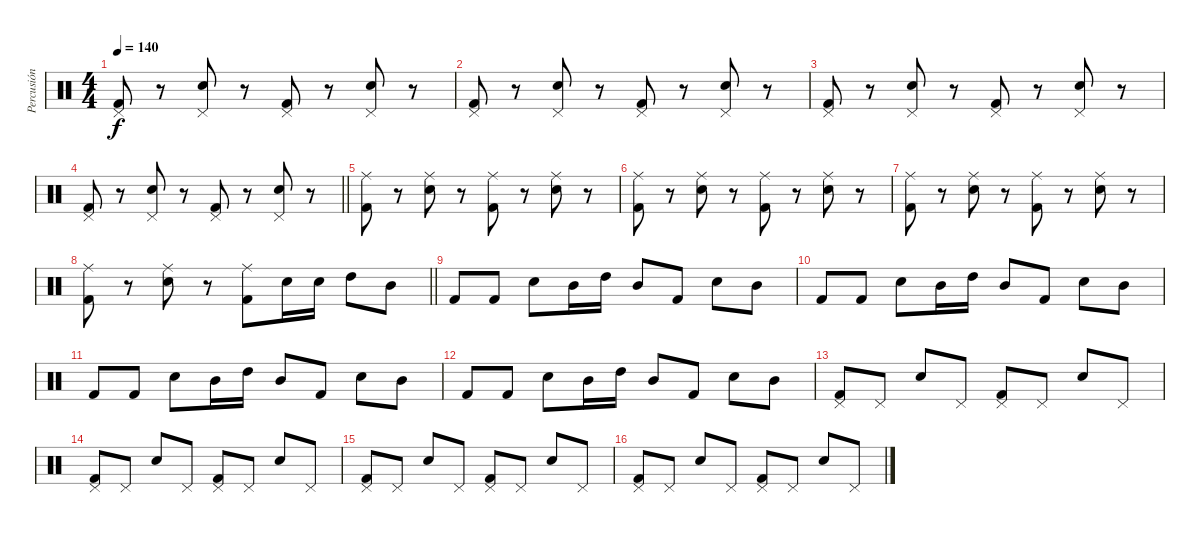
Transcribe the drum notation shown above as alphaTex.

\track ("Percusión" "Percusión") {instrument percussion}
\staff {score}
\articulation defaults
\ts (4 4)
\tempo 140
\clef neutral
\ks c
("Pedal Hi-Hat (hit)" "Kick (hit) 2").8{dy f} r.8 ("Pedal Hi-Hat (hit)" "Snare (hit) 2").8 r.8 ("Pedal Hi-Hat (hit)" "Kick (hit) 2").8 r.8 ("Pedal Hi-Hat (hit)" "Snare (hit) 2").8 r.8 |
("Pedal Hi-Hat (hit)" "Kick (hit) 2").8 r.8 ("Pedal Hi-Hat (hit)" "Snare (hit) 2").8 r.8 ("Pedal Hi-Hat (hit)" "Kick (hit) 2").8 r.8 ("Pedal Hi-Hat (hit)" "Snare (hit) 2").8 r.8 |
("Pedal Hi-Hat (hit)" "Kick (hit) 2").8 r.8 ("Pedal Hi-Hat (hit)" "Snare (hit) 2").8 r.8 ("Pedal Hi-Hat (hit)" "Kick (hit) 2").8 r.8 ("Pedal Hi-Hat (hit)" "Snare (hit) 2").8 r.8 |
\barLineRight lightlight
("Pedal Hi-Hat (hit)" "Kick (hit) 2").8 r.8 ("Pedal Hi-Hat (hit)" "Snare (hit) 2").8 r.8 ("Pedal Hi-Hat (hit)" "Kick (hit) 2").8 r.8 ("Pedal Hi-Hat (hit)" "Snare (hit) 2").8 r.8 |
("Ride (middle)" "Kick (hit) 2").8 r.8 ("Ride (middle)" "Snare (hit) 2").8 r.8 ("Ride (middle)" "Kick (hit) 2").8 r.8 ("Ride (middle)" "Snare (hit) 2").8 r.8 |
("Ride (middle)" "Kick (hit) 2").8 r.8 ("Ride (middle)" "Snare (hit) 2").8 r.8 ("Ride (middle)" "Kick (hit) 2").8 r.8 ("Ride (middle)" "Snare (hit) 2").8 r.8 |
("Ride (middle)" "Kick (hit) 2").8 r.8 ("Ride (middle)" "Snare (hit) 2").8 r.8 ("Ride (middle)" "Kick (hit) 2").8 r.8 ("Ride (middle)" "Snare (hit) 2").8 r.8 |
\barLineRight lightlight
("Ride (middle)" "Kick (hit) 2").8 r.8 ("Ride (middle)" "Snare (hit) 2").8 r.8 ("Ride (middle)" "Kick (hit) 2").8 "Snare (hit) 2".16 "Snare (hit) 2".16 "High Tom (hit)".8 "Mid Tom (hit)".8 |
"Kick (hit) 2".8 "Kick (hit) 2".8 "Snare (hit) 2".8 "Mid Tom (hit)".16 "High Tom (hit)".16 "Mid Tom (hit)".8 "Kick (hit) 2".8 "Snare (hit) 2".8 "Mid Tom (hit)".8 |
"Kick (hit) 2".8 "Kick (hit) 2".8 "Snare (hit) 2".8 "Mid Tom (hit)".16 "High Tom (hit)".16 "Mid Tom (hit)".8 "Kick (hit) 2".8 "Snare (hit) 2".8 "Mid Tom (hit)".8 |
"Kick (hit) 2".8 "Kick (hit) 2".8 "Snare (hit) 2".8 "Mid Tom (hit)".16 "High Tom (hit)".16 "Mid Tom (hit)".8 "Kick (hit) 2".8 "Snare (hit) 2".8 "Mid Tom (hit)".8 |
"Kick (hit) 2".8 "Kick (hit) 2".8 "Snare (hit) 2".8 "Mid Tom (hit)".16 "High Tom (hit)".16 "Mid Tom (hit)".8 "Kick (hit) 2".8 "Snare (hit) 2".8 "Mid Tom (hit)".8 |
("Pedal Hi-Hat (hit)" "Kick (hit) 2").8 "Pedal Hi-Hat (hit)".8 "Snare (hit) 2".8 "Pedal Hi-Hat (hit)".8 ("Pedal Hi-Hat (hit)" "Kick (hit) 2").8 "Pedal Hi-Hat (hit)".8 "Snare (hit) 2".8 "Pedal Hi-Hat (hit)".8 |
("Pedal Hi-Hat (hit)" "Kick (hit) 2").8 "Pedal Hi-Hat (hit)".8 "Snare (hit) 2".8 "Pedal Hi-Hat (hit)".8 ("Pedal Hi-Hat (hit)" "Kick (hit) 2").8 "Pedal Hi-Hat (hit)".8 "Snare (hit) 2".8 "Pedal Hi-Hat (hit)".8 |
("Pedal Hi-Hat (hit)" "Kick (hit) 2").8 "Pedal Hi-Hat (hit)".8 "Snare (hit) 2".8 "Pedal Hi-Hat (hit)".8 ("Pedal Hi-Hat (hit)" "Kick (hit) 2").8 "Pedal Hi-Hat (hit)".8 "Snare (hit) 2".8 "Pedal Hi-Hat (hit)".8 |
("Pedal Hi-Hat (hit)" "Kick (hit) 2").8 "Pedal Hi-Hat (hit)".8 "Snare (hit) 2".8 "Pedal Hi-Hat (hit)".8 ("Pedal Hi-Hat (hit)" "Kick (hit) 2").8 "Pedal Hi-Hat (hit)".8 "Snare (hit) 2".8 "Pedal Hi-Hat (hit)".8
